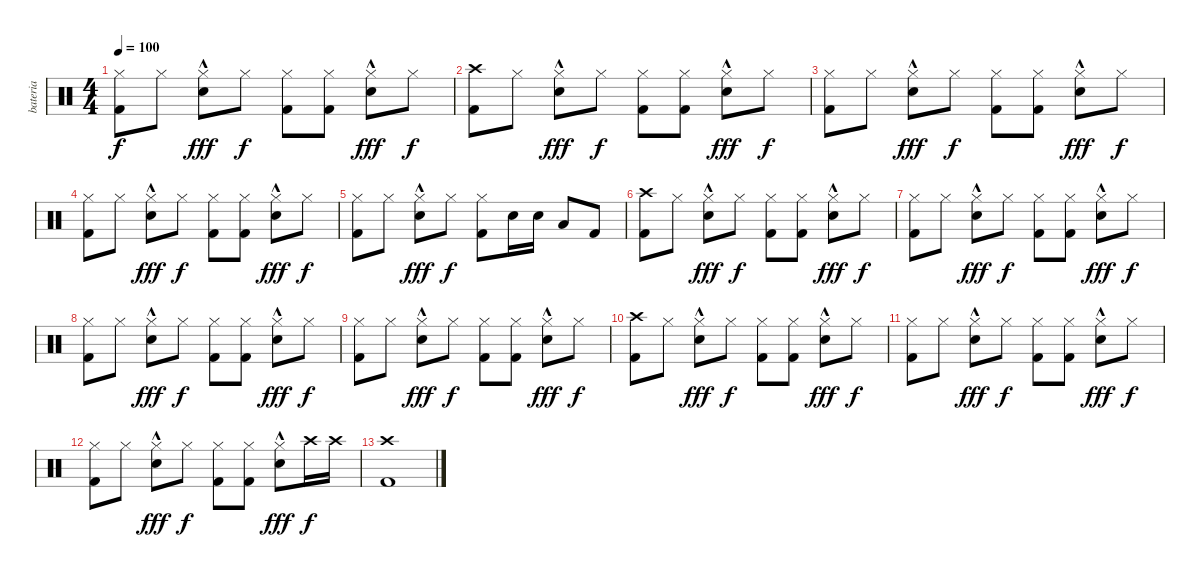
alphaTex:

\track ("bateria" "bateria") {instrument percussion}
\staff {score}
\articulation defaults
\ts (4 4)
\tempo 100
\clef neutral
\ks c
("Hi-Hat (closed)" "Kick (hit) 2").8{dy f} "Hi-Hat (closed)".8 ("Hi-Hat (closed)" "Electric Snare (hit)"{hac}).8{dy fff} "Hi-Hat (closed)".8{dy f} ("Hi-Hat (closed)" "Kick (hit) 2").8 ("Hi-Hat (closed)" "Kick (hit) 2").8 ("Hi-Hat (closed)" "Electric Snare (hit)"{hac}).8{dy fff} "Hi-Hat (closed)".8{dy f} |
("Crash high (hit)" "Kick (hit) 2").8 "Hi-Hat (closed)".8 ("Hi-Hat (closed)" "Electric Snare (hit)"{hac}).8{dy fff} "Hi-Hat (closed)".8{dy f} ("Hi-Hat (closed)" "Kick (hit) 2").8 ("Hi-Hat (closed)" "Kick (hit) 2").8 ("Hi-Hat (closed)" "Electric Snare (hit)"{hac}).8{dy fff} "Hi-Hat (closed)".8{dy f} |
("Hi-Hat (closed)" "Kick (hit) 2").8 "Hi-Hat (closed)".8 ("Hi-Hat (closed)" "Electric Snare (hit)"{hac}).8{dy fff} "Hi-Hat (closed)".8{dy f} ("Hi-Hat (closed)" "Kick (hit) 2").8 ("Hi-Hat (closed)" "Kick (hit) 2").8 ("Hi-Hat (closed)" "Electric Snare (hit)"{hac}).8{dy fff} "Hi-Hat (closed)".8{dy f} |
("Hi-Hat (closed)" "Kick (hit) 2").8 "Hi-Hat (closed)".8 ("Hi-Hat (closed)" "Electric Snare (hit)"{hac}).8{dy fff} "Hi-Hat (closed)".8{dy f} ("Hi-Hat (closed)" "Kick (hit) 2").8 ("Hi-Hat (closed)" "Kick (hit) 2").8 ("Hi-Hat (closed)" "Electric Snare (hit)"{hac}).8{dy fff} "Hi-Hat (closed)".8{dy f} |
("Hi-Hat (closed)" "Kick (hit) 2").8 "Hi-Hat (closed)".8 ("Hi-Hat (closed)" "Electric Snare (hit)"{hac}).8{dy fff} "Hi-Hat (closed)".8{dy f} ("Hi-Hat (closed)" "Kick (hit) 2").8 "Electric Snare (hit)".16 "Electric Snare (hit)".16 "Low Tom (hit)".8 "Kick (hit) 2".8 |
("Crash high (hit)" "Kick (hit) 2").8 "Hi-Hat (closed)".8 ("Hi-Hat (closed)" "Electric Snare (hit)"{hac}).8{dy fff} "Hi-Hat (closed)".8{dy f} ("Hi-Hat (closed)" "Kick (hit) 2").8 ("Hi-Hat (closed)" "Kick (hit) 2").8 ("Hi-Hat (closed)" "Electric Snare (hit)"{hac}).8{dy fff} "Hi-Hat (closed)".8{dy f} |
("Hi-Hat (closed)" "Kick (hit) 2").8 "Hi-Hat (closed)".8 ("Hi-Hat (closed)" "Electric Snare (hit)"{hac}).8{dy fff} "Hi-Hat (closed)".8{dy f} ("Hi-Hat (closed)" "Kick (hit) 2").8 ("Hi-Hat (closed)" "Kick (hit) 2").8 ("Hi-Hat (closed)" "Electric Snare (hit)"{hac}).8{dy fff} "Hi-Hat (closed)".8{dy f} |
("Hi-Hat (closed)" "Kick (hit) 2").8 "Hi-Hat (closed)".8 ("Hi-Hat (closed)" "Electric Snare (hit)"{hac}).8{dy fff} "Hi-Hat (closed)".8{dy f} ("Hi-Hat (closed)" "Kick (hit) 2").8 ("Hi-Hat (closed)" "Kick (hit) 2").8 ("Hi-Hat (closed)" "Electric Snare (hit)"{hac}).8{dy fff} "Hi-Hat (closed)".8{dy f} |
("Hi-Hat (closed)" "Kick (hit) 2").8 "Hi-Hat (closed)".8 ("Hi-Hat (closed)" "Electric Snare (hit)"{hac}).8{dy fff} "Hi-Hat (closed)".8{dy f} ("Hi-Hat (closed)" "Kick (hit) 2").8 ("Hi-Hat (closed)" "Kick (hit) 2").8 ("Hi-Hat (closed)" "Electric Snare (hit)"{hac}).8{dy fff} "Hi-Hat (closed)".8{dy f} |
("Crash high (hit)" "Kick (hit) 2").8 "Hi-Hat (closed)".8 ("Hi-Hat (closed)" "Electric Snare (hit)"{hac}).8{dy fff} "Hi-Hat (closed)".8{dy f} ("Hi-Hat (closed)" "Kick (hit) 2").8 ("Hi-Hat (closed)" "Kick (hit) 2").8 ("Hi-Hat (closed)" "Electric Snare (hit)"{hac}).8{dy fff} "Hi-Hat (closed)".8{dy f} |
("Hi-Hat (closed)" "Kick (hit) 2").8 "Hi-Hat (closed)".8 ("Hi-Hat (closed)" "Electric Snare (hit)"{hac}).8{dy fff} "Hi-Hat (closed)".8{dy f} ("Hi-Hat (closed)" "Kick (hit) 2").8 ("Hi-Hat (closed)" "Kick (hit) 2").8 ("Hi-Hat (closed)" "Electric Snare (hit)"{hac}).8{dy fff} "Hi-Hat (closed)".8{dy f} |
("Hi-Hat (closed)" "Kick (hit) 2").8 "Hi-Hat (closed)".8 ("Hi-Hat (closed)" "Electric Snare (hit)"{hac}).8{dy fff} "Hi-Hat (closed)".8{dy f} ("Hi-Hat (closed)" "Kick (hit) 2").8 ("Hi-Hat (closed)" "Kick (hit) 2").8 ("Hi-Hat (closed)" "Electric Snare (hit)"{hac}).8{dy fff} "Crash high (hit)".16{dy f} "Crash high (hit)".16 |
("Crash high (hit)" "Kick (hit) 2").1
